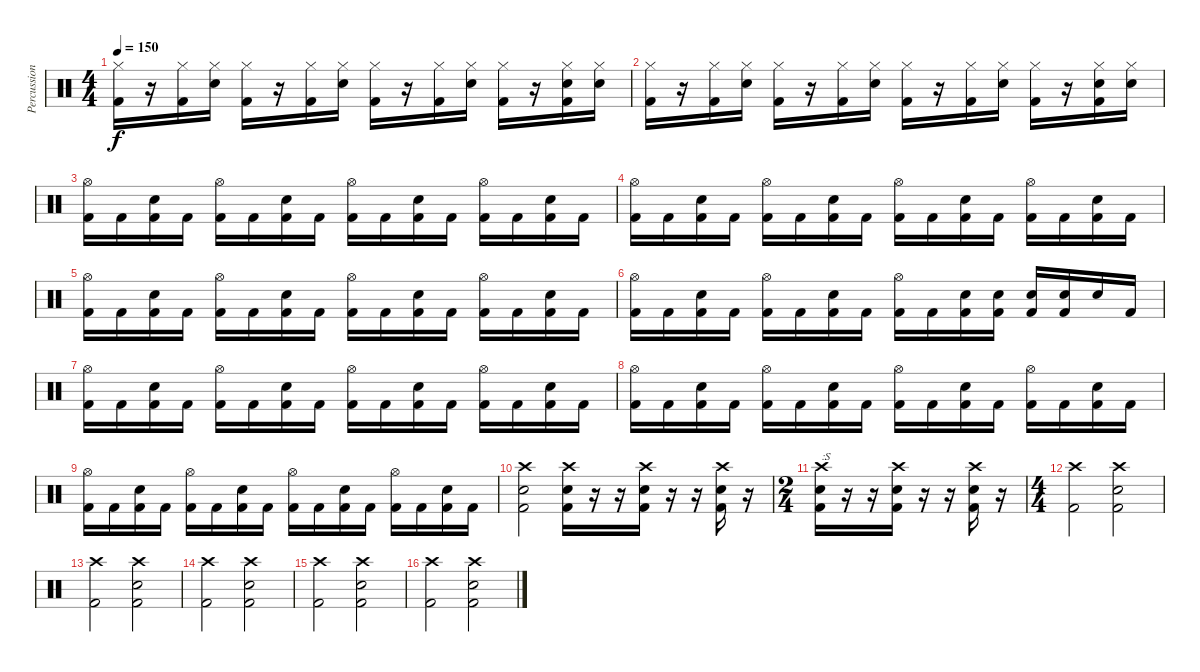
\track ("Percussions" "Percussion") {instrument percussion}
\staff {score}
\articulation defaults
\ts (4 4)
\tempo 150
\clef neutral
\ks c
("Hi-Hat (closed)" "Kick (hit) 2").16{dy f} r.16 ("Hi-Hat (closed)" "Kick (hit) 2").16 ("Hi-Hat (closed)" "Snare (hit) 2").16 ("Hi-Hat (closed)" "Kick (hit) 2").16 r.16 ("Hi-Hat (closed)" "Kick (hit) 2").16 ("Hi-Hat (closed)" "Snare (hit) 2").16 ("Hi-Hat (closed)" "Kick (hit) 2").16 r.16 ("Hi-Hat (closed)" "Kick (hit) 2").16 ("Hi-Hat (closed)" "Snare (hit) 2").16 ("Hi-Hat (closed)" "Kick (hit) 2").16 r.16 ("Hi-Hat (closed)" "Snare (hit) 2" "Kick (hit) 2").16 ("Hi-Hat (closed)" "Snare (hit) 2").16 |
("Hi-Hat (closed)" "Kick (hit) 2").16 r.16 ("Hi-Hat (closed)" "Kick (hit) 2").16 ("Hi-Hat (closed)" "Snare (hit) 2").16 ("Hi-Hat (closed)" "Kick (hit) 2").16 r.16 ("Hi-Hat (closed)" "Kick (hit) 2").16 ("Hi-Hat (closed)" "Snare (hit) 2").16 ("Hi-Hat (closed)" "Kick (hit) 2").16 r.16 ("Hi-Hat (closed)" "Kick (hit) 2").16 ("Hi-Hat (closed)" "Snare (hit) 2").16 ("Hi-Hat (closed)" "Kick (hit) 2").16 r.16 ("Hi-Hat (closed)" "Snare (hit) 2" "Kick (hit) 2").16 ("Hi-Hat (closed)" "Snare (hit) 2").16 |
("Hi-Hat (open)" "Kick (hit) 2").16 "Kick (hit) 2".16 ("Snare (hit) 2" "Kick (hit) 2").16 "Kick (hit) 2".16 ("Hi-Hat (open)" "Kick (hit) 2").16 "Kick (hit) 2".16 ("Snare (hit) 2" "Kick (hit) 2").16 "Kick (hit) 2".16 ("Hi-Hat (open)" "Kick (hit) 2").16 "Kick (hit) 2".16 ("Snare (hit) 2" "Kick (hit) 2").16 "Kick (hit) 2".16 ("Hi-Hat (open)" "Kick (hit) 2").16 "Kick (hit) 2".16 ("Snare (hit) 2" "Kick (hit) 2").16 "Kick (hit) 2".16 |
("Hi-Hat (open)" "Kick (hit) 2").16 "Kick (hit) 2".16 ("Snare (hit) 2" "Kick (hit) 2").16 "Kick (hit) 2".16 ("Hi-Hat (open)" "Kick (hit) 2").16 "Kick (hit) 2".16 ("Snare (hit) 2" "Kick (hit) 2").16 "Kick (hit) 2".16 ("Hi-Hat (open)" "Kick (hit) 2").16 "Kick (hit) 2".16 ("Snare (hit) 2" "Kick (hit) 2").16 "Kick (hit) 2".16 ("Hi-Hat (open)" "Kick (hit) 2").16 "Kick (hit) 2".16 ("Snare (hit) 2" "Kick (hit) 2").16 "Kick (hit) 2".16 |
("Hi-Hat (open)" "Kick (hit) 2").16 "Kick (hit) 2".16 ("Snare (hit) 2" "Kick (hit) 2").16 "Kick (hit) 2".16 ("Hi-Hat (open)" "Kick (hit) 2").16 "Kick (hit) 2".16 ("Snare (hit) 2" "Kick (hit) 2").16 "Kick (hit) 2".16 ("Hi-Hat (open)" "Kick (hit) 2").16 "Kick (hit) 2".16 ("Snare (hit) 2" "Kick (hit) 2").16 "Kick (hit) 2".16 ("Hi-Hat (open)" "Kick (hit) 2").16 "Kick (hit) 2".16 ("Snare (hit) 2" "Kick (hit) 2").16 "Kick (hit) 2".16 |
("Hi-Hat (open)" "Kick (hit) 2").16 "Kick (hit) 2".16 ("Snare (hit) 2" "Kick (hit) 2").16 "Kick (hit) 2".16 ("Hi-Hat (open)" "Kick (hit) 2").16 "Kick (hit) 2".16 ("Snare (hit) 2" "Kick (hit) 2").16 "Kick (hit) 2".16 ("Hi-Hat (open)" "Kick (hit) 2").16 "Kick (hit) 2".16 ("Snare (hit) 2" "Kick (hit) 2").16 ("Snare (hit) 2" "Kick (hit) 2").16 ("Snare (hit) 2" "Kick (hit) 2").16 ("Snare (hit) 2" "Kick (hit) 2").16 "Snare (hit) 2".16 "Kick (hit) 2".16 |
("Hi-Hat (open)" "Kick (hit) 2").16 "Kick (hit) 2".16 ("Snare (hit) 2" "Kick (hit) 2").16 "Kick (hit) 2".16 ("Hi-Hat (open)" "Kick (hit) 2").16 "Kick (hit) 2".16 ("Snare (hit) 2" "Kick (hit) 2").16 "Kick (hit) 2".16 ("Hi-Hat (open)" "Kick (hit) 2").16 "Kick (hit) 2".16 ("Snare (hit) 2" "Kick (hit) 2").16 "Kick (hit) 2".16 ("Hi-Hat (open)" "Kick (hit) 2").16 "Kick (hit) 2".16 ("Snare (hit) 2" "Kick (hit) 2").16 "Kick (hit) 2".16 |
("Hi-Hat (open)" "Kick (hit) 2").16 "Kick (hit) 2".16 ("Snare (hit) 2" "Kick (hit) 2").16 "Kick (hit) 2".16 ("Hi-Hat (open)" "Kick (hit) 2").16 "Kick (hit) 2".16 ("Snare (hit) 2" "Kick (hit) 2").16 "Kick (hit) 2".16 ("Hi-Hat (open)" "Kick (hit) 2").16 "Kick (hit) 2".16 ("Snare (hit) 2" "Kick (hit) 2").16 "Kick (hit) 2".16 ("Hi-Hat (open)" "Kick (hit) 2").16 "Kick (hit) 2".16 ("Snare (hit) 2" "Kick (hit) 2").16 "Kick (hit) 2".16 |
("Hi-Hat (open)" "Kick (hit) 2").16 "Kick (hit) 2".16 ("Snare (hit) 2" "Kick (hit) 2").16 "Kick (hit) 2".16 ("Hi-Hat (open)" "Kick (hit) 2").16 "Kick (hit) 2".16 ("Snare (hit) 2" "Kick (hit) 2").16 "Kick (hit) 2".16 ("Hi-Hat (open)" "Kick (hit) 2").16 "Kick (hit) 2".16 ("Snare (hit) 2" "Kick (hit) 2").16 "Kick (hit) 2".16 ("Hi-Hat (open)" "Kick (hit) 2").16 "Kick (hit) 2".16 ("Snare (hit) 2" "Kick (hit) 2").16 "Kick (hit) 2".16 |
("Crash high (hit)" "Kick (hit) 2" "Snare (hit) 2").2 ("Crash high (hit)" "Snare (hit) 2" "Kick (hit) 2").16 r.16 r.16 ("Crash high (hit)" "Snare (hit) 2" "Kick (hit) 2").16 r.16 r.16 ("Crash high (hit)" "Snare (hit) 2" "Kick (hit) 2").16 r.16 |
\ts (2 4)
("Crash high (hit)" "Snare (hit) 2" "Kick (hit) 2").16{txt ":S"} r.16 r.16 ("Crash high (hit)" "Snare (hit) 2" "Kick (hit) 2").16 r.16 r.16 ("Crash high (hit)" "Snare (hit) 2" "Kick (hit) 2").16 r.16 |
\ts (4 4)
("Crash high (hit)" "Kick (hit) 2").2 ("Crash high (hit)" "Snare (hit) 2" "Kick (hit) 2").2 |
("Crash high (hit)" "Kick (hit) 2").2 ("Crash high (hit)" "Snare (hit) 2" "Kick (hit) 2").2 |
("Crash high (hit)" "Kick (hit) 2").2 ("Crash high (hit)" "Snare (hit) 2" "Kick (hit) 2").2 |
("Crash high (hit)" "Kick (hit) 2").2 ("Crash high (hit)" "Snare (hit) 2" "Kick (hit) 2").2 |
("Crash high (hit)" "Kick (hit) 2").2 ("Crash high (hit)" "Snare (hit) 2" "Kick (hit) 2").2
